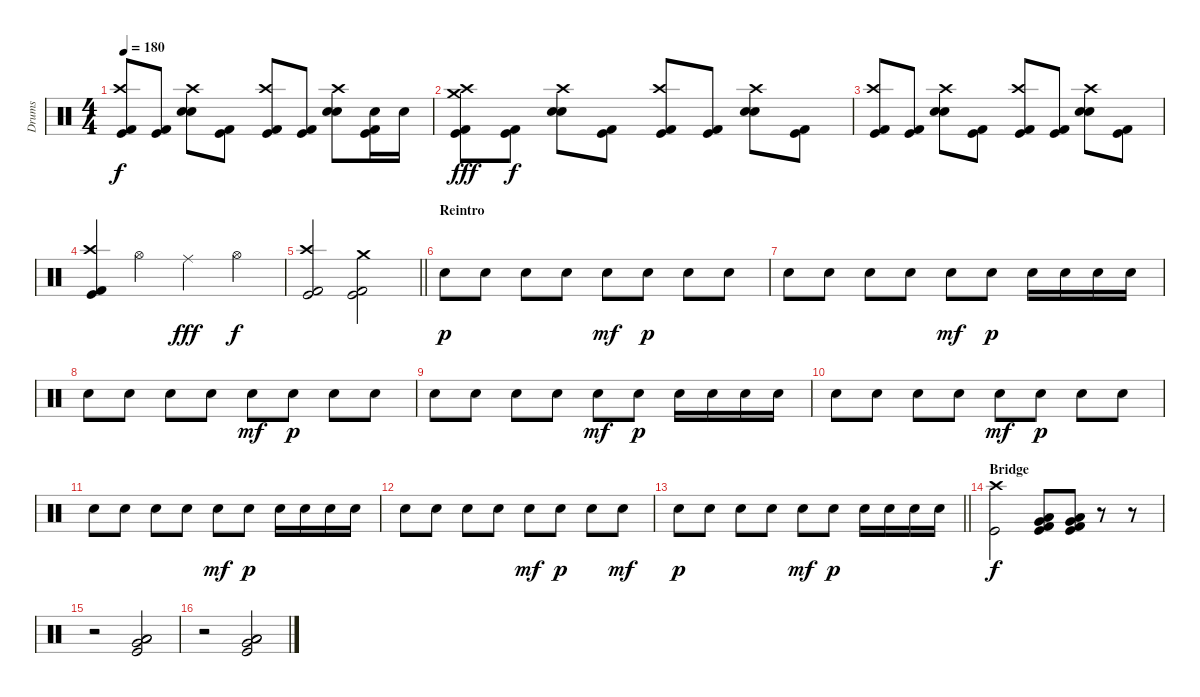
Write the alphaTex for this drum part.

\track ("Drums" "Drums") {instrument percussion}
\staff {score}
\articulation defaults
\ts (4 4)
\tempo 180
\clef neutral
\ks c
("Kick (hit)" "Crash high (hit)" "Kick (hit) 2").8{dy f} ("Kick (hit)" "Kick (hit) 2").8 ("Electric Snare (hit)" "Snare (hit) 2" "Crash high (hit)").8 ("Kick (hit)" "Kick (hit) 2").8 ("Kick (hit)" "Crash high (hit)" "Kick (hit) 2").8 ("Kick (hit)" "Kick (hit) 2").8 ("Electric Snare (hit)" "Snare (hit) 2" "Crash high (hit)").8 ("Electric Snare (hit)" "Kick (hit)" "Kick (hit) 2").16 "Electric Snare (hit)".16 |
("Crash medium (hit)" "Kick (hit)" "Crash high (hit)" "Kick (hit) 2").8{dy fff} ("Kick (hit)" "Kick (hit) 2").8{dy f} ("Electric Snare (hit)" "Snare (hit) 2" "Crash high (hit)").8 ("Kick (hit)" "Kick (hit) 2").8 ("Kick (hit)" "Crash high (hit)" "Kick (hit) 2").8 ("Kick (hit)" "Kick (hit) 2").8 ("Electric Snare (hit)" "Snare (hit) 2" "Crash high (hit)").8 ("Kick (hit)" "Kick (hit) 2").8 |
("Kick (hit)" "Crash high (hit)" "Kick (hit) 2").8 ("Kick (hit)" "Kick (hit) 2").8 ("Electric Snare (hit)" "Snare (hit) 2" "Crash high (hit)").8 ("Kick (hit)" "Kick (hit) 2").8 ("Kick (hit)" "Crash high (hit)" "Kick (hit) 2").8 ("Kick (hit)" "Kick (hit) 2").8 ("Electric Snare (hit)" "Snare (hit) 2" "Crash high (hit)").8 ("Kick (hit)" "Kick (hit) 2").8 |
("Kick (hit)" "Crash high (hit)" "Kick (hit) 2").4 "Hi-Hat (open)".4 "Ride (middle)".4{dy fff} "Hi-Hat (open)".4{dy f} |
\barLineRight lightlight
("Crash high (hit)" "Kick (hit)" "Kick (hit) 2").2 ("Crash medium (hit)" "Kick (hit) 2" "Kick (hit)").2 |
\section ("" "Reintro")
"Snare (hit) 2".8{dy p} "Snare (hit) 2".8 "Snare (hit) 2".8 "Snare (hit) 2".8 "Snare (hit) 2".8{dy mf} "Snare (hit) 2".8{dy p} "Snare (hit) 2".8 "Snare (hit) 2".8 |
"Snare (hit) 2".8 "Snare (hit) 2".8 "Snare (hit) 2".8 "Snare (hit) 2".8 "Snare (hit) 2".8{dy mf} "Snare (hit) 2".8{dy p} "Snare (hit) 2".16 "Snare (hit) 2".16 "Snare (hit) 2".16 "Snare (hit) 2".16 |
"Snare (hit) 2".8 "Snare (hit) 2".8 "Snare (hit) 2".8 "Snare (hit) 2".8 "Snare (hit) 2".8{dy mf} "Snare (hit) 2".8{dy p} "Snare (hit) 2".8 "Snare (hit) 2".8 |
"Snare (hit) 2".8 "Snare (hit) 2".8 "Snare (hit) 2".8 "Snare (hit) 2".8 "Snare (hit) 2".8{dy mf} "Snare (hit) 2".8{dy p} "Snare (hit) 2".16 "Snare (hit) 2".16 "Snare (hit) 2".16 "Snare (hit) 2".16 |
"Snare (hit) 2".8 "Snare (hit) 2".8 "Snare (hit) 2".8 "Snare (hit) 2".8 "Snare (hit) 2".8{dy mf} "Snare (hit) 2".8{dy p} "Snare (hit) 2".8 "Snare (hit) 2".8 |
"Snare (hit) 2".8 "Snare (hit) 2".8 "Snare (hit) 2".8 "Snare (hit) 2".8 "Snare (hit) 2".8{dy mf} "Snare (hit) 2".8{dy p} "Snare (hit) 2".16 "Snare (hit) 2".16 "Snare (hit) 2".16 "Snare (hit) 2".16 |
"Snare (hit) 2".8 "Snare (hit) 2".8 "Snare (hit) 2".8 "Snare (hit) 2".8 "Snare (hit) 2".8{dy mf} "Snare (hit) 2".8{dy p} "Snare (hit) 2".8 "Snare (hit) 2".8{dy mf} |
\barLineRight lightlight "Snare (hit) 2".8{dy p} "Snare (hit) 2".8 "Snare (hit) 2".8 "Snare (hit) 2".8 "Snare (hit) 2".8{dy mf} "Snare (hit) 2".8{dy p} "Snare (hit) 2".16 "Snare (hit) 2".16 "Snare (hit) 2".16 "Snare (hit) 2".16
|
\section ("" "Bridge")
("Kick (hit)" "Crash high (hit)").2{dy f} ("Kick (hit) 2" "Kick (hit)" "Very Low Tom (hit)" "Low Floor Tom (hit)").8 ("Kick (hit) 2" "Kick (hit)" "Very Low Tom (hit)" "Low Floor Tom (hit)").8 r.8 r.8 |
r.2 ("Kick (hit)" "Very Low Tom (hit)" "Low Tom (hit)" "Low Floor Tom (hit)").2 |
r.2 ("Kick (hit)" "Very Low Tom (hit)" "Low Tom (hit)" "Low Floor Tom (hit)").2
